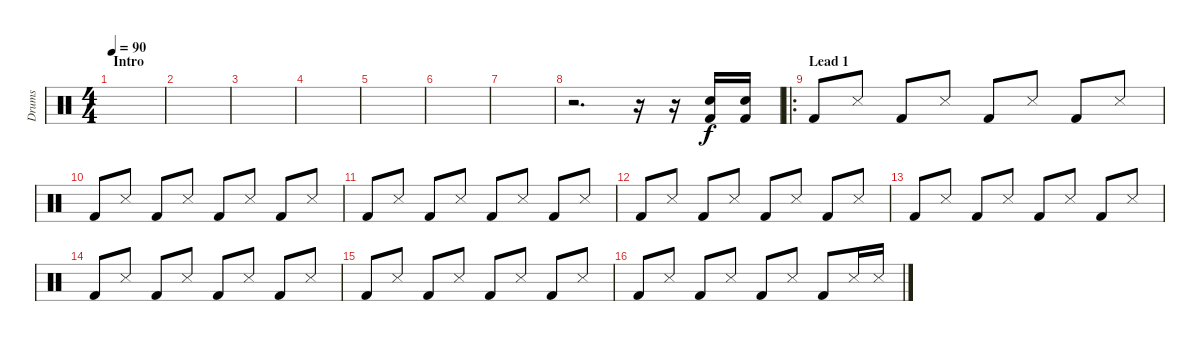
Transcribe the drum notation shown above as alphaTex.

\track ("Drums" "Drums") {instrument percussion}
\staff {score}
\articulation defaults
\ts (4 4)
\section ("" "Intro")
\tempo 90
\clef neutral
\ks c
|
|
|
|
|
|
|
r.2{d} r.16 r.16 ("Snare (hit) 2" "Kick (hit) 2").16 ("Snare (hit) 2" "Kick (hit) 2").16 |
\ro
\section ("" "Lead 1")
"Kick (hit) 2".8 "Snare (side stick) 3".8 "Kick (hit) 2".8 "Snare (side stick) 3".8 "Kick (hit) 2".8 "Snare (side stick) 3".8 "Kick (hit) 2".8 "Snare (side stick) 3".8 |
"Kick (hit) 2".8 "Snare (side stick) 3".8 "Kick (hit) 2".8 "Snare (side stick) 3".8 "Kick (hit) 2".8 "Snare (side stick) 3".8 "Kick (hit) 2".8 "Snare (side stick) 3".8 |
"Kick (hit) 2".8 "Snare (side stick) 3".8 "Kick (hit) 2".8 "Snare (side stick) 3".8 "Kick (hit) 2".8 "Snare (side stick) 3".8 "Kick (hit) 2".8 "Snare (side stick) 3".8 |
"Kick (hit) 2".8 "Snare (side stick) 3".8 "Kick (hit) 2".8 "Snare (side stick) 3".8 "Kick (hit) 2".8 "Snare (side stick) 3".8 "Kick (hit) 2".8 "Snare (side stick) 3".8 |
"Kick (hit) 2".8 "Snare (side stick) 3".8 "Kick (hit) 2".8 "Snare (side stick) 3".8 "Kick (hit) 2".8 "Snare (side stick) 3".8 "Kick (hit) 2".8 "Snare (side stick) 3".8 |
"Kick (hit) 2".8 "Snare (side stick) 3".8 "Kick (hit) 2".8 "Snare (side stick) 3".8 "Kick (hit) 2".8 "Snare (side stick) 3".8 "Kick (hit) 2".8 "Snare (side stick) 3".8 |
"Kick (hit) 2".8 "Snare (side stick) 3".8 "Kick (hit) 2".8 "Snare (side stick) 3".8 "Kick (hit) 2".8 "Snare (side stick) 3".8 "Kick (hit) 2".8 "Snare (side stick) 3".8 |
"Kick (hit) 2".8 "Snare (side stick) 3".8 "Kick (hit) 2".8 "Snare (side stick) 3".8 "Kick (hit) 2".8 "Snare (side stick) 3".8 "Kick (hit) 2".8 "Snare (side stick) 3".16 "Snare (side stick) 3".16
